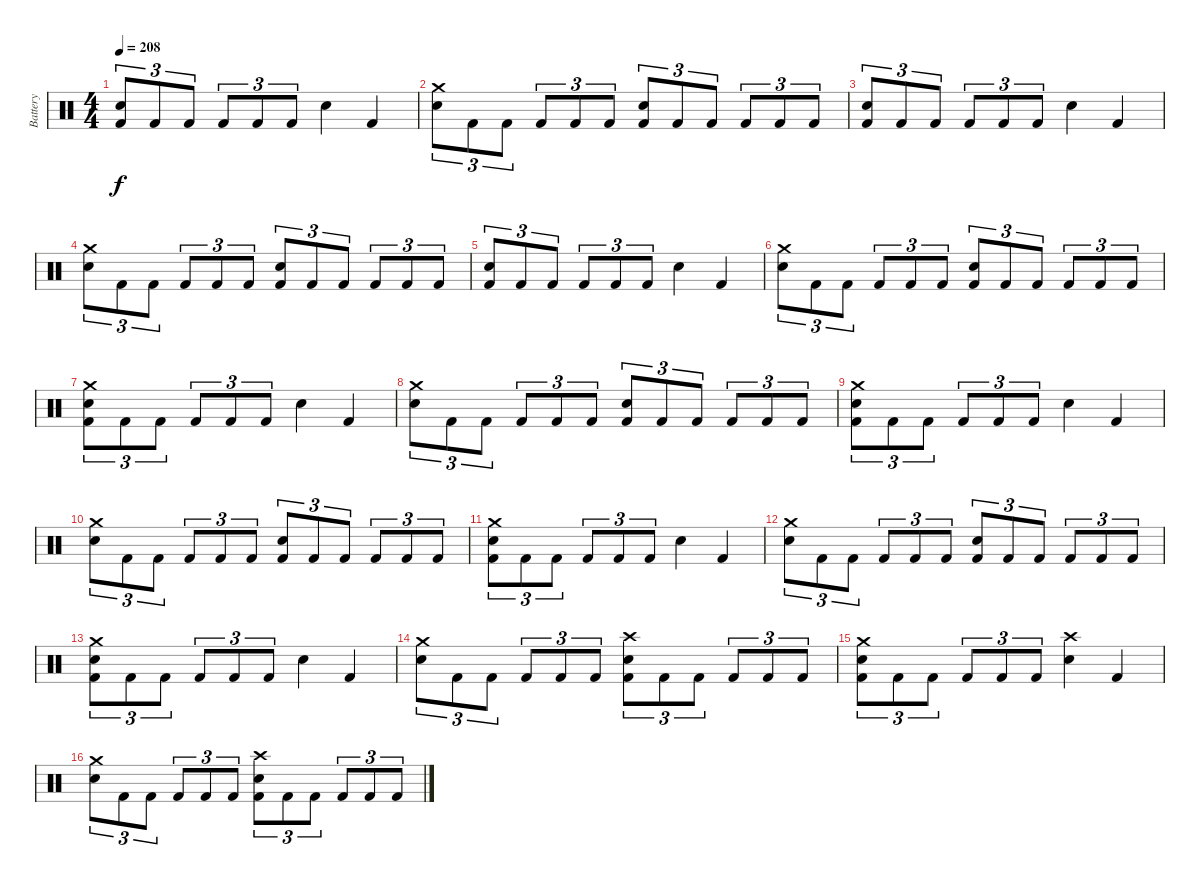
\track ("Battery" "Battery") {instrument percussion}
\staff {score}
\articulation defaults
\ts (4 4)
\tempo 208
\clef neutral
\ks c
("Electric Snare (hit)" "Kick (hit) 2").8{tu (3 2) dy f} "Kick (hit) 2".8{tu (3 2)} "Kick (hit) 2".8{tu (3 2)} "Kick (hit) 2".8{tu (3 2)} "Kick (hit) 2".8{tu (3 2)} "Kick (hit) 2".8{tu (3 2)} "Electric Snare (hit)".4 "Kick (hit) 2".4 |
("Crash medium (hit)" "Electric Snare (hit)").8{tu (3 2)} "Kick (hit) 2".8{tu (3 2)} "Kick (hit) 2".8{tu (3 2)} "Kick (hit) 2".8{tu (3 2)} "Kick (hit) 2".8{tu (3 2)} "Kick (hit) 2".8{tu (3 2)} ("Electric Snare (hit)" "Kick (hit) 2").8{tu (3 2)} "Kick (hit) 2".8{tu (3 2)} "Kick (hit) 2".8{tu (3 2)} "Kick (hit) 2".8{tu (3 2)} "Kick (hit) 2".8{tu (3 2)} "Kick (hit) 2".8{tu (3 2)} |
("Electric Snare (hit)" "Kick (hit) 2").8{tu (3 2)} "Kick (hit) 2".8{tu (3 2)} "Kick (hit) 2".8{tu (3 2)} "Kick (hit) 2".8{tu (3 2)} "Kick (hit) 2".8{tu (3 2)} "Kick (hit) 2".8{tu (3 2)} "Electric Snare (hit)".4 "Kick (hit) 2".4 |
("Crash medium (hit)" "Electric Snare (hit)").8{tu (3 2)} "Kick (hit) 2".8{tu (3 2)} "Kick (hit) 2".8{tu (3 2)} "Kick (hit) 2".8{tu (3 2)} "Kick (hit) 2".8{tu (3 2)} "Kick (hit) 2".8{tu (3 2)} ("Electric Snare (hit)" "Kick (hit) 2").8{tu (3 2)} "Kick (hit) 2".8{tu (3 2)} "Kick (hit) 2".8{tu (3 2)} "Kick (hit) 2".8{tu (3 2)} "Kick (hit) 2".8{tu (3 2)} "Kick (hit) 2".8{tu (3 2)} |
("Electric Snare (hit)" "Kick (hit) 2").8{tu (3 2)} "Kick (hit) 2".8{tu (3 2)} "Kick (hit) 2".8{tu (3 2)} "Kick (hit) 2".8{tu (3 2)} "Kick (hit) 2".8{tu (3 2)} "Kick (hit) 2".8{tu (3 2)} "Electric Snare (hit)".4 "Kick (hit) 2".4 |
("Crash medium (hit)" "Electric Snare (hit)").8{tu (3 2)} "Kick (hit) 2".8{tu (3 2)} "Kick (hit) 2".8{tu (3 2)} "Kick (hit) 2".8{tu (3 2)} "Kick (hit) 2".8{tu (3 2)} "Kick (hit) 2".8{tu (3 2)} ("Electric Snare (hit)" "Kick (hit) 2").8{tu (3 2)} "Kick (hit) 2".8{tu (3 2)} "Kick (hit) 2".8{tu (3 2)} "Kick (hit) 2".8{tu (3 2)} "Kick (hit) 2".8{tu (3 2)} "Kick (hit) 2".8{tu (3 2)} |
("Crash medium (hit)" "Electric Snare (hit)" "Kick (hit) 2").8{tu (3 2)} "Kick (hit) 2".8{tu (3 2)} "Kick (hit) 2".8{tu (3 2)} "Kick (hit) 2".8{tu (3 2)} "Kick (hit) 2".8{tu (3 2)} "Kick (hit) 2".8{tu (3 2)} "Electric Snare (hit)".4 "Kick (hit) 2".4 |
("Crash medium (hit)" "Electric Snare (hit)").8{tu (3 2)} "Kick (hit) 2".8{tu (3 2)} "Kick (hit) 2".8{tu (3 2)} "Kick (hit) 2".8{tu (3 2)} "Kick (hit) 2".8{tu (3 2)} "Kick (hit) 2".8{tu (3 2)} ("Electric Snare (hit)" "Kick (hit) 2").8{tu (3 2)} "Kick (hit) 2".8{tu (3 2)} "Kick (hit) 2".8{tu (3 2)} "Kick (hit) 2".8{tu (3 2)} "Kick (hit) 2".8{tu (3 2)} "Kick (hit) 2".8{tu (3 2)} |
("Crash medium (hit)" "Electric Snare (hit)" "Kick (hit) 2").8{tu (3 2)} "Kick (hit) 2".8{tu (3 2)} "Kick (hit) 2".8{tu (3 2)} "Kick (hit) 2".8{tu (3 2)} "Kick (hit) 2".8{tu (3 2)} "Kick (hit) 2".8{tu (3 2)} "Electric Snare (hit)".4 "Kick (hit) 2".4 |
("Crash medium (hit)" "Electric Snare (hit)").8{tu (3 2)} "Kick (hit) 2".8{tu (3 2)} "Kick (hit) 2".8{tu (3 2)} "Kick (hit) 2".8{tu (3 2)} "Kick (hit) 2".8{tu (3 2)} "Kick (hit) 2".8{tu (3 2)} ("Electric Snare (hit)" "Kick (hit) 2").8{tu (3 2)} "Kick (hit) 2".8{tu (3 2)} "Kick (hit) 2".8{tu (3 2)} "Kick (hit) 2".8{tu (3 2)} "Kick (hit) 2".8{tu (3 2)} "Kick (hit) 2".8{tu (3 2)} |
("Crash medium (hit)" "Electric Snare (hit)" "Kick (hit) 2").8{tu (3 2)} "Kick (hit) 2".8{tu (3 2)} "Kick (hit) 2".8{tu (3 2)} "Kick (hit) 2".8{tu (3 2)} "Kick (hit) 2".8{tu (3 2)} "Kick (hit) 2".8{tu (3 2)} "Electric Snare (hit)".4 "Kick (hit) 2".4 |
("Crash medium (hit)" "Electric Snare (hit)").8{tu (3 2)} "Kick (hit) 2".8{tu (3 2)} "Kick (hit) 2".8{tu (3 2)} "Kick (hit) 2".8{tu (3 2)} "Kick (hit) 2".8{tu (3 2)} "Kick (hit) 2".8{tu (3 2)} ("Electric Snare (hit)" "Kick (hit) 2").8{tu (3 2)} "Kick (hit) 2".8{tu (3 2)} "Kick (hit) 2".8{tu (3 2)} "Kick (hit) 2".8{tu (3 2)} "Kick (hit) 2".8{tu (3 2)} "Kick (hit) 2".8{tu (3 2)} |
("Crash medium (hit)" "Electric Snare (hit)" "Kick (hit) 2").8{tu (3 2)} "Kick (hit) 2".8{tu (3 2)} "Kick (hit) 2".8{tu (3 2)} "Kick (hit) 2".8{tu (3 2)} "Kick (hit) 2".8{tu (3 2)} "Kick (hit) 2".8{tu (3 2)} "Electric Snare (hit)".4 "Kick (hit) 2".4 |
("Crash medium (hit)" "Electric Snare (hit)").8{tu (3 2) volume 10} "Kick (hit) 2".8{tu (3 2)} "Kick (hit) 2".8{tu (3 2)} "Kick (hit) 2".8{tu (3 2)} "Kick (hit) 2".8{tu (3 2)} "Kick (hit) 2".8{tu (3 2)} ("Crash high (hit)" "Electric Snare (hit)" "Kick (hit) 2").8{tu (3 2)} "Kick (hit) 2".8{tu (3 2)} "Kick (hit) 2".8{tu (3 2)} "Kick (hit) 2".8{tu (3 2)} "Kick (hit) 2".8{tu (3 2)} "Kick (hit) 2".8{tu (3 2)} |
("Crash medium (hit)" "Electric Snare (hit)" "Kick (hit) 2").8{tu (3 2)} "Kick (hit) 2".8{tu (3 2)} "Kick (hit) 2".8{tu (3 2)} "Kick (hit) 2".8{tu (3 2)} "Kick (hit) 2".8{tu (3 2)} "Kick (hit) 2".8{tu (3 2)} ("Crash high (hit)" "Electric Snare (hit)").4 "Kick (hit) 2".4 |
("Crash medium (hit)" "Electric Snare (hit)").8{tu (3 2)} "Kick (hit) 2".8{tu (3 2)} "Kick (hit) 2".8{tu (3 2)} "Kick (hit) 2".8{tu (3 2)} "Kick (hit) 2".8{tu (3 2)} "Kick (hit) 2".8{tu (3 2)} ("Crash high (hit)" "Electric Snare (hit)" "Kick (hit) 2").8{tu (3 2)} "Kick (hit) 2".8{tu (3 2)} "Kick (hit) 2".8{tu (3 2)} "Kick (hit) 2".8{tu (3 2)} "Kick (hit) 2".8{tu (3 2)} "Kick (hit) 2".8{tu (3 2)}
